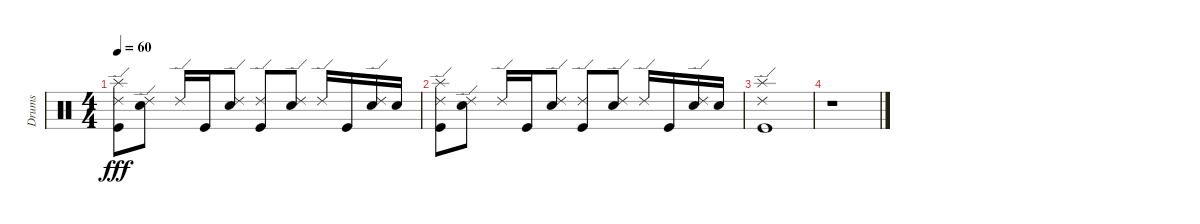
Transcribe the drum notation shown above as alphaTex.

\track ("Drums" "Drums") {instrument percussion}
\staff {score}
\articulation defaults
\ts (4 4)
\tempo 60
\clef neutral
\ks c
("Ride (edge) 2" "Kick (hit)" "Splash (hit)").8{dy fff} ("Ride (edge) 2" "Snare (hit) 2").8 "Ride (edge) 2".16 "Kick (hit)".16 ("Ride (edge) 2" "Snare (hit) 2").8 ("Ride (edge) 2" "Kick (hit)").8 ("Ride (edge) 2" "Snare (hit) 2").8 "Ride (edge) 2".16 "Kick (hit)".16 ("Ride (edge) 2" "Snare (hit) 2").16 "Snare (hit) 2".16 |
("Ride (edge) 2" "Kick (hit)" "Splash (hit)").8 ("Ride (edge) 2" "Snare (hit) 2").8 "Ride (edge) 2".16 "Kick (hit)".16 ("Ride (edge) 2" "Snare (hit) 2").8 ("Ride (edge) 2" "Kick (hit)").8 ("Ride (edge) 2" "Snare (hit) 2").8 "Ride (edge) 2".16 "Kick (hit)".16 ("Ride (edge) 2" "Snare (hit) 2").16 "Snare (hit) 2".16 |
("Ride (edge) 2" "Kick (hit)" "Splash (hit)").1 |
r.1
